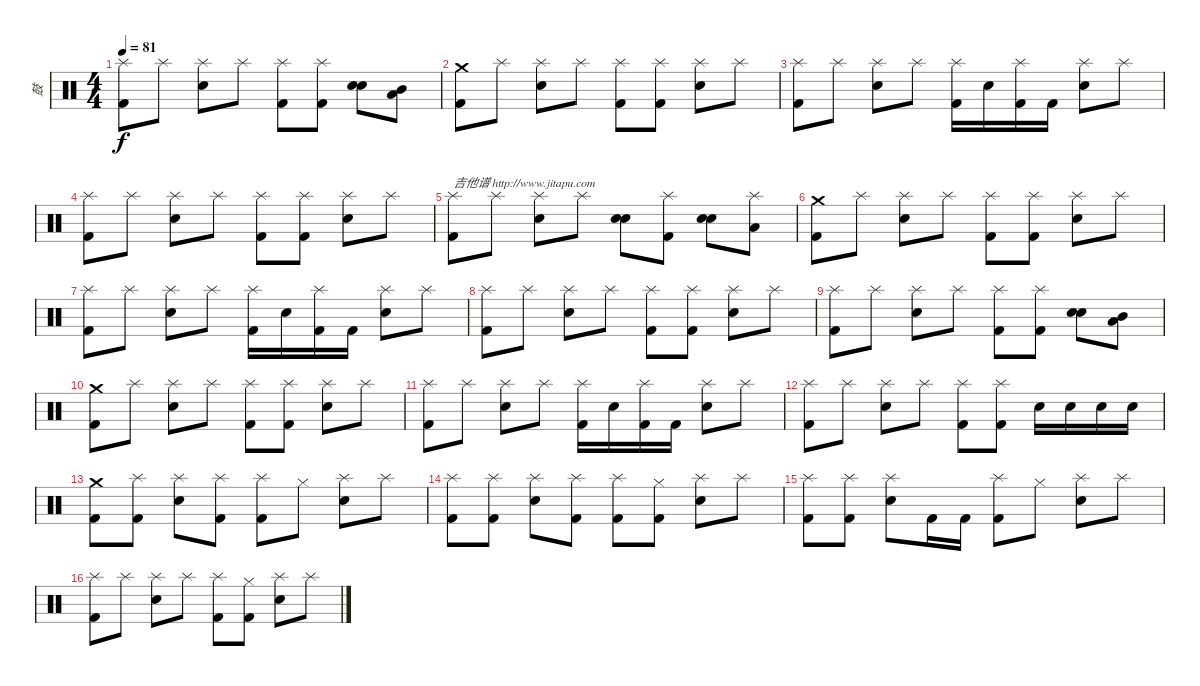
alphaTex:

\track ("鼓" "鼓") {instrument percussion}
\staff {score}
\articulation defaults
\ts (4 4)
\tempo 81
\clef neutral
\ks c
("Splash (hit)" "Kick (hit) 2").8{dy f} "Splash (hit)".8 ("Splash (hit)" "Snare (hit) 2").8 "Splash (hit)".8 ("Splash (hit)" "Kick (hit) 2").8 ("Splash (hit)" "Kick (hit) 2").8 ("Snare (hit) 2" "Snare (hit) 2").8 ("Low Tom (hit)" "Mid Tom (hit)").8 |
("Crash medium (hit)" "Kick (hit) 2").8 "Splash (hit)".8 ("Splash (hit)" "Snare (hit) 2").8 "Splash (hit)".8 ("Splash (hit)" "Kick (hit) 2").8 ("Splash (hit)" "Kick (hit) 2").8 ("Splash (hit)" "Snare (hit) 2").8 "Splash (hit)".8 |
("Splash (hit)" "Kick (hit) 2").8 "Splash (hit)".8 ("Splash (hit)" "Snare (hit) 2").8 "Splash (hit)".8 ("Splash (hit)" "Kick (hit) 2").16 "Snare (hit) 2".16 ("Splash (hit)" "Kick (hit) 2").16 "Kick (hit) 2".16 ("Splash (hit)" "Snare (hit) 2").8 "Splash (hit)".8 |
("Splash (hit)" "Kick (hit) 2").8 "Splash (hit)".8 ("Splash (hit)" "Snare (hit) 2").8 "Splash (hit)".8 ("Splash (hit)" "Kick (hit) 2").8 ("Splash (hit)" "Kick (hit) 2").8 ("Splash (hit)" "Snare (hit) 2").8 "Splash (hit)".8 |
("Splash (hit)" "Kick (hit) 2").8{txt "吉他谱 http://www.jitapu.com"} "Splash (hit)".8 ("Splash (hit)" "Snare (hit) 2").8 "Splash (hit)".8 ("Snare (hit) 2" "Snare (hit) 2").8 ("Splash (hit)" "Kick (hit) 2").8 ("Snare (hit) 2" "Snare (hit) 2").8 ("Splash (hit)" "Low Tom (hit)").8 |
("Crash medium (hit)" "Kick (hit) 2").8 "Splash (hit)".8 ("Splash (hit)" "Snare (hit) 2").8 "Splash (hit)".8 ("Splash (hit)" "Kick (hit) 2").8 ("Splash (hit)" "Kick (hit) 2").8 ("Splash (hit)" "Snare (hit) 2").8 "Splash (hit)".8 |
("Splash (hit)" "Kick (hit) 2").8 "Splash (hit)".8 ("Splash (hit)" "Snare (hit) 2").8 "Splash (hit)".8 ("Splash (hit)" "Kick (hit) 2").16 "Snare (hit) 2".16 ("Splash (hit)" "Kick (hit) 2").16 "Kick (hit) 2".16 ("Splash (hit)" "Snare (hit) 2").8 "Splash (hit)".8 |
("Splash (hit)" "Kick (hit) 2").8 "Splash (hit)".8 ("Splash (hit)" "Snare (hit) 2").8 "Splash (hit)".8 ("Splash (hit)" "Kick (hit) 2").8 ("Splash (hit)" "Kick (hit) 2").8 ("Splash (hit)" "Snare (hit) 2").8 "Splash (hit)".8 |
("Splash (hit)" "Kick (hit) 2").8 "Splash (hit)".8 ("Splash (hit)" "Snare (hit) 2").8 "Splash (hit)".8 ("Splash (hit)" "Kick (hit) 2").8 ("Splash (hit)" "Kick (hit) 2").8 ("Snare (hit) 2" "Snare (hit) 2").8 ("Low Tom (hit)" "Mid Tom (hit)").8 |
("Crash medium (hit)" "Kick (hit) 2").8 "Splash (hit)".8 ("Splash (hit)" "Snare (hit) 2").8 "Splash (hit)".8 ("Splash (hit)" "Kick (hit) 2").8 ("Splash (hit)" "Kick (hit) 2").8 ("Splash (hit)" "Snare (hit) 2").8 "Splash (hit)".8 |
("Splash (hit)" "Kick (hit) 2").8 "Splash (hit)".8 ("Splash (hit)" "Snare (hit) 2").8 "Splash (hit)".8 ("Splash (hit)" "Kick (hit) 2").16 "Snare (hit) 2".16 ("Splash (hit)" "Kick (hit) 2").16 "Kick (hit) 2".16 ("Splash (hit)" "Snare (hit) 2").8 "Splash (hit)".8 |
("Splash (hit)" "Kick (hit) 2").8 "Splash (hit)".8 ("Splash (hit)" "Snare (hit) 2").8 "Splash (hit)".8 ("Splash (hit)" "Kick (hit) 2").8 ("Splash (hit)" "Kick (hit) 2").8 "Snare (hit) 2".16 "Snare (hit) 2".16 "Snare (hit) 2".16 "Snare (hit) 2".16 |
("Crash medium (hit)" "Kick (hit) 2").8 ("Splash (hit)" "Kick (hit) 2").8 ("Splash (hit)" "Snare (hit) 2").8 ("Splash (hit)" "Kick (hit) 2").8 ("Splash (hit)" "Kick (hit) 2").8 "Hi-Hat (closed)".8 ("Splash (hit)" "Snare (hit) 2").8 "Splash (hit)".8 |
("Splash (hit)" "Kick (hit) 2").8 ("Splash (hit)" "Kick (hit) 2").8 ("Splash (hit)" "Snare (hit) 2").8 ("Splash (hit)" "Kick (hit) 2").8 ("Splash (hit)" "Kick (hit) 2").8 ("Hi-Hat (closed)" "Kick (hit) 2").8 ("Splash (hit)" "Snare (hit) 2").8 "Splash (hit)".8 |
("Splash (hit)" "Kick (hit) 2").8 ("Splash (hit)" "Kick (hit) 2").8 ("Splash (hit)" "Snare (hit) 2").8 "Kick (hit) 2".16 "Kick (hit) 2".16 ("Splash (hit)" "Kick (hit) 2").8 "Hi-Hat (closed)".8 ("Splash (hit)" "Snare (hit) 2").8 "Splash (hit)".8 |
("Splash (hit)" "Kick (hit) 2").8 "Splash (hit)".8 ("Splash (hit)" "Snare (hit) 2").8 "Splash (hit)".8 ("Splash (hit)" "Kick (hit) 2").8 ("Hi-Hat (closed)" "Kick (hit) 2").8 ("Splash (hit)" "Snare (hit) 2").8 "Splash (hit)".8
